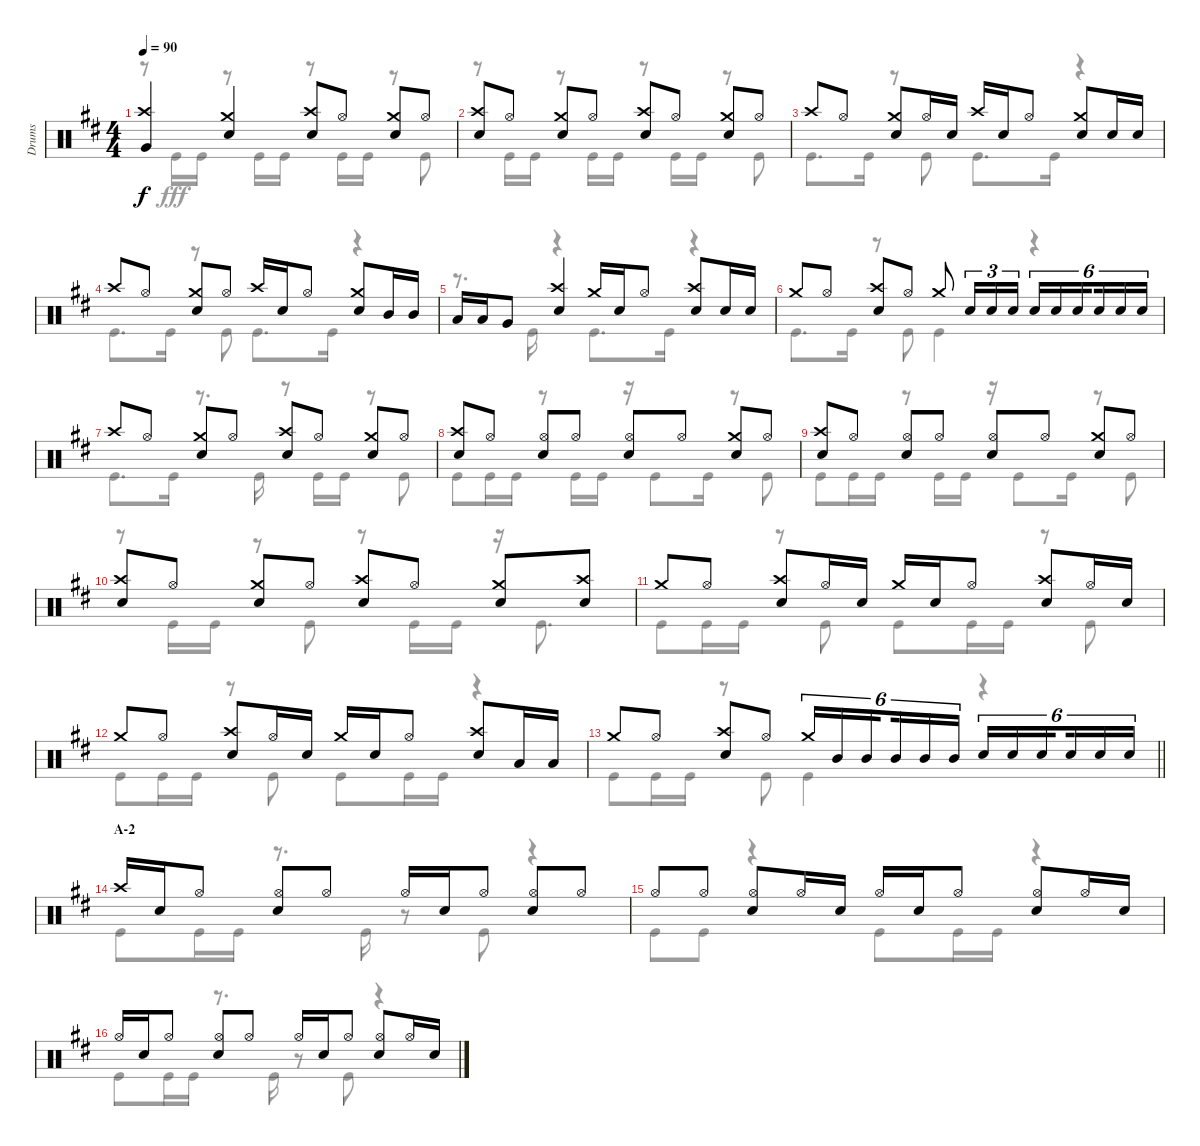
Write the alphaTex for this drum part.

\track ("Drums" "Drums") {instrument percussion}
\staff {score}
\articulation defaults
\voice
\ts (4 4)
\tempo 90
\clef neutral
\ks d
("Crash high (hit)" "Very Low Tom (hit)").4{dy f} ("Crash medium (hit)" "Snare (hit) 2").4 ("Crash high (hit)" "Snare (hit) 2").8 "Hi-Hat (open)".8 ("Crash medium (hit)" "Snare (hit) 2").8 "Hi-Hat (open)".8 |
("Crash high (hit)" "Snare (hit) 2").8 "Hi-Hat (open)".8 ("Crash medium (hit)" "Snare (hit) 2").8 "Hi-Hat (open)".8 ("Crash high (hit)" "Snare (hit) 2").8 "Hi-Hat (open)".8 ("Crash medium (hit)" "Snare (hit) 2").8 "Hi-Hat (open)".8 |
"Crash high (hit)".8 "Hi-Hat (open)".8 ("Crash medium (hit)" "Snare (hit) 2").8 "Hi-Hat (open)".16 "Snare (hit) 2".16 "Crash high (hit)".16 "Snare (hit) 2".16 "Hi-Hat (open)".8 ("Crash medium (hit)" "Snare (hit) 2").8 "Snare (hit) 2".16 "Snare (hit) 2".16 |
"Crash high (hit)".8 "Hi-Hat (open)".8 ("Crash medium (hit)" "Snare (hit) 2").8 "Hi-Hat (open)".8 "Crash high (hit)".16 "Snare (hit) 2".16 "Hi-Hat (open)".8 ("Crash medium (hit)" "Snare (hit) 2").8 "Mid Tom (hit)".16 "Mid Tom (hit)".16 |
"Low Tom (hit)".16 "Low Tom (hit)".16 "Very Low Tom (hit)".8 ("Crash high (hit)" "Snare (hit) 2").4 "Crash medium (hit)".16 "Snare (hit) 2".16 "Hi-Hat (open)".8 ("Crash high (hit)" "Snare (hit) 2").8 "Snare (hit) 2".16 "Snare (hit) 2".16 |
"Crash medium (hit)".8 "Hi-Hat (open)".8 ("Crash high (hit)" "Snare (hit) 2").8 "Hi-Hat (open)".8 "Crash medium (hit)".8 "Snare (hit) 2".16{tu (3 2)} "Snare (hit) 2".16{tu (3 2)} "Snare (hit) 2".16{tu (3 2)} "Snare (hit) 2".16{tu (6 4)} "Snare (hit) 2".16{tu (6 4)} "Snare (hit) 2".16{tu (6 4) beam splitsecondary} "Snare (hit) 2".16{tu (6 4)} "Snare (hit) 2".16{tu (6 4)} "Snare (hit) 2".16{tu (6 4)} |
"Crash high (hit)".8 "Hi-Hat (open)".8 ("Crash medium (hit)" "Snare (hit) 2").8 "Hi-Hat (open)".8 ("Crash high (hit)" "Snare (hit) 2").8 "Hi-Hat (open)".8 ("Crash medium (hit)" "Snare (hit) 2").8 "Hi-Hat (open)".8 |
("Crash high (hit)" "Snare (hit) 2").8 "Hi-Hat (open)".8 ("Hi-Hat (open)" "Snare (hit) 2").8 "Hi-Hat (open)".8 ("Hi-Hat (open)" "Snare (hit) 2").8 "Hi-Hat (open)".8 ("Crash medium (hit)" "Snare (hit) 2").8 "Hi-Hat (open)".8 |
("Crash high (hit)" "Snare (hit) 2").8 "Hi-Hat (open)".8 ("Hi-Hat (open)" "Snare (hit) 2").8 "Hi-Hat (open)".8 ("Hi-Hat (open)" "Snare (hit) 2").8 "Hi-Hat (open)".8 ("Crash medium (hit)" "Snare (hit) 2").8 "Hi-Hat (open)".8 |
("Crash high (hit)" "Snare (hit) 2").8 "Hi-Hat (open)".8 ("Crash medium (hit)" "Snare (hit) 2").8 "Hi-Hat (open)".8 ("Crash high (hit)" "Snare (hit) 2").8 "Hi-Hat (open)".8 ("Crash medium (hit)" "Snare (hit) 2").8 ("Crash high (hit)" "Snare (hit) 2").8 |
"Crash medium (hit)".8 "Hi-Hat (open)".8 ("Crash high (hit)" "Snare (hit) 2").8 "Hi-Hat (open)".16 "Snare (hit) 2".16 "Crash medium (hit)".16 "Snare (hit) 2".16 "Hi-Hat (open)".8 ("Crash high (hit)" "Snare (hit) 2").8 "Hi-Hat (open)".16 "Snare (hit) 2".16 |
"Crash medium (hit)".8 "Hi-Hat (open)".8 ("Crash high (hit)" "Snare (hit) 2").8 "Hi-Hat (open)".16 "Snare (hit) 2".16 "Crash medium (hit)".16 "Snare (hit) 2".16 "Hi-Hat (open)".8 ("Crash high (hit)" "Snare (hit) 2").8 "Low Tom (hit)".16 "Low Tom (hit)".16 |
\barLineRight lightlight "Crash medium (hit)".8 "Hi-Hat (open)".8
("Crash high (hit)" "Snare (hit) 2").8 "Hi-Hat (open)".8 "Crash medium (hit)".16{tu (6 4)} "Mid Tom (hit)".16{tu (6 4)} "Mid Tom (hit)".16{tu (6 4) beam splitsecondary} "Mid Tom (hit)".16{tu (6 4)} "Mid Tom (hit)".16{tu (6 4)} "Mid Tom (hit)".16{tu (6 4)} "Snare (hit) 2".16{tu (6 4)} "Snare (hit) 2".16{tu (6 4)} "Snare (hit) 2".16{tu (6 4) beam splitsecondary} "Snare (hit) 2".16{tu (6 4)} "Snare (hit) 2".16{tu (6 4)} "Snare (hit) 2".16{tu (6 4)} |
\section ("" "A-2")
"Crash high (hit)".16 "Snare (hit) 2".16 "Hi-Hat (open)".8 ("Hi-Hat (open)" "Snare (hit) 2").8 "Hi-Hat (open)".8 "Hi-Hat (open)".16 "Snare (hit) 2".16 "Hi-Hat (open)".8 ("Hi-Hat (open)" "Snare (hit) 2").8 "Hi-Hat (open)".8 |
"Hi-Hat (open)".8 "Hi-Hat (open)".8 ("Hi-Hat (open)" "Snare (hit) 2").8 "Hi-Hat (open)".16 "Snare (hit) 2".16 "Hi-Hat (open)".16 "Snare (hit) 2".16 "Hi-Hat (open)".8 ("Hi-Hat (open)" "Snare (hit) 2").8 "Hi-Hat (open)".16 "Snare (hit) 2".16 |
"Hi-Hat (open)".16 "Snare (hit) 2".16 "Hi-Hat (open)".8 ("Hi-Hat (open)" "Snare (hit) 2").8 "Hi-Hat (open)".8 "Hi-Hat (open)".16 "Snare (hit) 2".16 "Hi-Hat (open)".8 ("Hi-Hat (open)" "Snare (hit) 2").8 "Hi-Hat (open)".16 "Snare (hit) 2".16
\voice
\clef neutral
\ottava regular
\simile none
\ks d
r.8{dy fff} "Kick (hit)".16 "Kick (hit)".16 r.8 "Kick (hit)".16 "Kick (hit)".16 r.8 "Kick (hit)".16 "Kick (hit)".16 r.8 "Kick (hit)".8 |
r.8 "Kick (hit)".16 "Kick (hit)".16 r.8 "Kick (hit)".16 "Kick (hit)".16 r.8 "Kick (hit)".16 "Kick (hit)".16 r.8 "Kick (hit)".8 |
"Kick (hit)".8{d} "Kick (hit)".16 r.8 "Kick (hit)".8 "Kick (hit)".8{d} "Kick (hit)".16 r.4 |
"Kick (hit)".8{d} "Kick (hit)".16 r.8 "Kick (hit)".8 "Kick (hit)".8{d} "Kick (hit)".16 r.4 |
r.8{d} "Kick (hit)".16 r.4 "Kick (hit)".8{d} "Kick (hit)".16 r.4 |
"Kick (hit)".8{d} "Kick (hit)".16 r.8 "Kick (hit)".8 "Kick (hit)".4 r.4 |
"Kick (hit)".8{d} "Kick (hit)".16 r.8{d} "Kick (hit)".16 r.8 "Kick (hit)".16 "Kick (hit)".16 r.8 "Kick (hit)".8 |
"Kick (hit)".8 "Kick (hit)".16 "Kick (hit)".16 r.8 "Kick (hit)".16 "Kick (hit)".16 r.16 "Kick (hit)".8 "Kick (hit)".16 r.8 "Kick (hit)".8 |
"Kick (hit)".8 "Kick (hit)".16 "Kick (hit)".16 r.8 "Kick (hit)".16 "Kick (hit)".16 r.16 "Kick (hit)".8 "Kick (hit)".16 r.8 "Kick (hit)".8 |
r.8 "Kick (hit)".16 "Kick (hit)".16 r.8 "Kick (hit)".8 r.8 "Kick (hit)".16 "Kick (hit)".16 r.16 "Kick (hit)".8{d} |
"Kick (hit)".8 "Kick (hit)".16 "Kick (hit)".16 r.8 "Kick (hit)".8 "Kick (hit)".8 "Kick (hit)".16 "Kick (hit)".16 r.8 "Kick (hit)".8 |
"Kick (hit)".8 "Kick (hit)".16 "Kick (hit)".16 r.8 "Kick (hit)".8 "Kick (hit)".8 "Kick (hit)".16 "Kick (hit)".16 r.4 |
\barLineRight lightlight "Kick (hit)".8 "Kick (hit)".16 "Kick (hit)".16
r.8 "Kick (hit)".8 "Kick (hit)".4 r.4 |
"Kick (hit)".8 "Kick (hit)".16 "Kick (hit)".16 r.8{d} "Kick (hit)".16 r.8 "Kick (hit)".8 r.4 |
"Kick (hit)".8 "Kick (hit)".8 r.4 "Kick (hit)".8 "Kick (hit)".16 "Kick (hit)".16 r.4 |
"Kick (hit)".8 "Kick (hit)".16 "Kick (hit)".16 r.8{d} "Kick (hit)".16 r.8 "Kick (hit)".8 r.4
